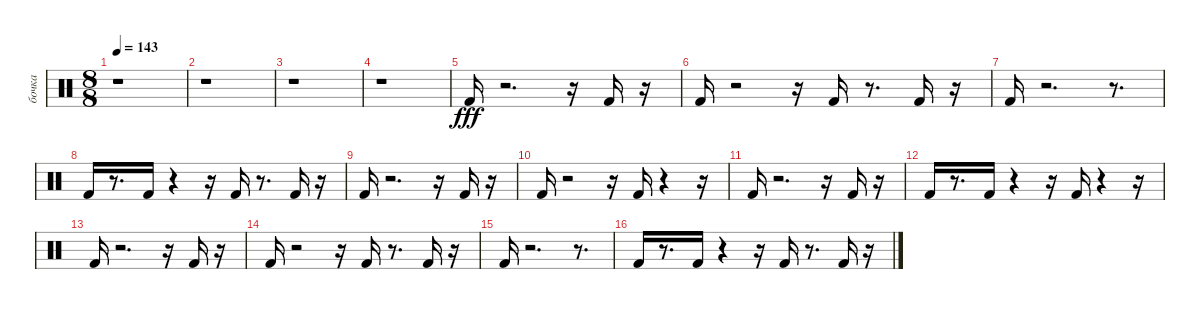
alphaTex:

\track ("бочка" "бочка") {instrument percussion}
\staff {score}
\articulation defaults
\ts (8 8)
\tempo 143
\clef neutral
\ks c
r.1{dy fff} |
r.1 |
r.1 |
r.1 |
"Kick (hit) 2".16 r.2{d} r.16 "Kick (hit) 2".16 r.16 |
"Kick (hit) 2".16 r.2 r.16 "Kick (hit) 2".16 r.8{d} "Kick (hit) 2".16 r.16 |
"Kick (hit) 2".16 r.2{d} r.8{d} |
"Kick (hit) 2".16 r.8{d} "Kick (hit) 2".16 r.4 r.16 "Kick (hit) 2".16 r.8{d} "Kick (hit) 2".16 r.16 |
"Kick (hit) 2".16 r.2{d} r.16 "Kick (hit) 2".16 r.16 |
"Kick (hit) 2".16 r.2 r.16 "Kick (hit) 2".16 r.4 r.16 |
"Kick (hit) 2".16 r.2{d} r.16 "Kick (hit) 2".16 r.16 |
"Kick (hit) 2".16 r.8{d} "Kick (hit) 2".16 r.4 r.16 "Kick (hit) 2".16 r.4 r.16 |
"Kick (hit) 2".16 r.2{d} r.16 "Kick (hit) 2".16 r.16 |
"Kick (hit) 2".16 r.2 r.16 "Kick (hit) 2".16 r.8{d} "Kick (hit) 2".16 r.16 |
"Kick (hit) 2".16 r.2{d} r.8{d} |
"Kick (hit) 2".16 r.8{d} "Kick (hit) 2".16 r.4 r.16 "Kick (hit) 2".16 r.8{d} "Kick (hit) 2".16 r.16
